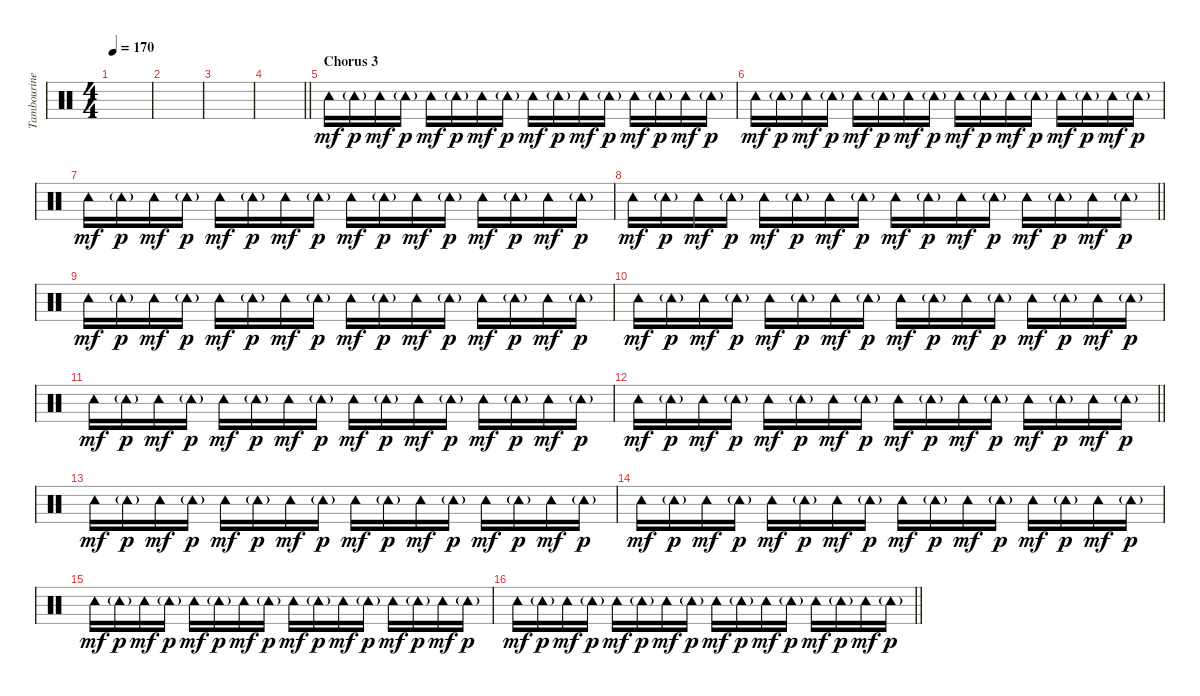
\track ("Tambourine" "Tambourine") {instrument percussion}
\staff {score}
\articulation defaults
\ts (4 4)
\tempo 170
\clef neutral
\ks c
|
|
|
\barLineRight lightlight
|
\section ("" "Chorus 3")
"Tambourine (hit)".16{dy mf} "Tambourine (hit)"{g}.16{dy p} "Tambourine (hit)".16{dy mf} "Tambourine (hit)"{g}.16{dy p} "Tambourine (hit)".16{dy mf} "Tambourine (hit)"{g}.16{dy p} "Tambourine (hit)".16{dy mf} "Tambourine (hit)"{g}.16{dy p} "Tambourine (hit)".16{dy mf} "Tambourine (hit)"{g}.16{dy p} "Tambourine (hit)".16{dy mf} "Tambourine (hit)"{g}.16{dy p} "Tambourine (hit)".16{dy mf} "Tambourine (hit)"{g}.16{dy p} "Tambourine (hit)".16{dy mf} "Tambourine (hit)"{g}.16{dy p} |
"Tambourine (hit)".16{dy mf} "Tambourine (hit)"{g}.16{dy p} "Tambourine (hit)".16{dy mf} "Tambourine (hit)"{g}.16{dy p} "Tambourine (hit)".16{dy mf} "Tambourine (hit)"{g}.16{dy p} "Tambourine (hit)".16{dy mf} "Tambourine (hit)"{g}.16{dy p} "Tambourine (hit)".16{dy mf} "Tambourine (hit)"{g}.16{dy p} "Tambourine (hit)".16{dy mf} "Tambourine (hit)"{g}.16{dy p} "Tambourine (hit)".16{dy mf} "Tambourine (hit)"{g}.16{dy p} "Tambourine (hit)".16{dy mf} "Tambourine (hit)"{g}.16{dy p} |
"Tambourine (hit)".16{dy mf} "Tambourine (hit)"{g}.16{dy p} "Tambourine (hit)".16{dy mf} "Tambourine (hit)"{g}.16{dy p} "Tambourine (hit)".16{dy mf} "Tambourine (hit)"{g}.16{dy p} "Tambourine (hit)".16{dy mf} "Tambourine (hit)"{g}.16{dy p} "Tambourine (hit)".16{dy mf} "Tambourine (hit)"{g}.16{dy p} "Tambourine (hit)".16{dy mf} "Tambourine (hit)"{g}.16{dy p} "Tambourine (hit)".16{dy mf} "Tambourine (hit)"{g}.16{dy p} "Tambourine (hit)".16{dy mf} "Tambourine (hit)"{g}.16{dy p} |
\barLineRight lightlight "Tambourine (hit)".16{dy mf} "Tambourine (hit)"{g}.16{dy p} "Tambourine (hit)".16{dy mf} "Tambourine (hit)"{g}.16{dy p} "Tambourine (hit)".16{dy mf} "Tambourine (hit)"{g}.16{dy p} "Tambourine (hit)".16{dy mf} "Tambourine (hit)"{g}.16{dy p} "Tambourine (hit)".16{dy mf} "Tambourine (hit)"{g}.16{dy p} "Tambourine (hit)".16{dy mf} "Tambourine (hit)"{g}.16{dy p} "Tambourine (hit)".16{dy mf} "Tambourine (hit)"{g}.16{dy p} "Tambourine (hit)".16{dy mf} "Tambourine (hit)"{g}.16{dy p}
|
"Tambourine (hit)".16{dy mf} "Tambourine (hit)"{g}.16{dy p} "Tambourine (hit)".16{dy mf} "Tambourine (hit)"{g}.16{dy p} "Tambourine (hit)".16{dy mf} "Tambourine (hit)"{g}.16{dy p} "Tambourine (hit)".16{dy mf} "Tambourine (hit)"{g}.16{dy p} "Tambourine (hit)".16{dy mf} "Tambourine (hit)"{g}.16{dy p} "Tambourine (hit)".16{dy mf} "Tambourine (hit)"{g}.16{dy p} "Tambourine (hit)".16{dy mf} "Tambourine (hit)"{g}.16{dy p} "Tambourine (hit)".16{dy mf} "Tambourine (hit)"{g}.16{dy p} |
"Tambourine (hit)".16{dy mf} "Tambourine (hit)"{g}.16{dy p} "Tambourine (hit)".16{dy mf} "Tambourine (hit)"{g}.16{dy p} "Tambourine (hit)".16{dy mf} "Tambourine (hit)"{g}.16{dy p} "Tambourine (hit)".16{dy mf} "Tambourine (hit)"{g}.16{dy p} "Tambourine (hit)".16{dy mf} "Tambourine (hit)"{g}.16{dy p} "Tambourine (hit)".16{dy mf} "Tambourine (hit)"{g}.16{dy p} "Tambourine (hit)".16{dy mf} "Tambourine (hit)"{g}.16{dy p} "Tambourine (hit)".16{dy mf} "Tambourine (hit)"{g}.16{dy p} |
"Tambourine (hit)".16{dy mf} "Tambourine (hit)"{g}.16{dy p} "Tambourine (hit)".16{dy mf} "Tambourine (hit)"{g}.16{dy p} "Tambourine (hit)".16{dy mf} "Tambourine (hit)"{g}.16{dy p} "Tambourine (hit)".16{dy mf} "Tambourine (hit)"{g}.16{dy p} "Tambourine (hit)".16{dy mf} "Tambourine (hit)"{g}.16{dy p} "Tambourine (hit)".16{dy mf} "Tambourine (hit)"{g}.16{dy p} "Tambourine (hit)".16{dy mf} "Tambourine (hit)"{g}.16{dy p} "Tambourine (hit)".16{dy mf} "Tambourine (hit)"{g}.16{dy p} |
\barLineRight lightlight "Tambourine (hit)".16{dy mf} "Tambourine (hit)"{g}.16{dy p} "Tambourine (hit)".16{dy mf} "Tambourine (hit)"{g}.16{dy p} "Tambourine (hit)".16{dy mf} "Tambourine (hit)"{g}.16{dy p} "Tambourine (hit)".16{dy mf} "Tambourine (hit)"{g}.16{dy p} "Tambourine (hit)".16{dy mf} "Tambourine (hit)"{g}.16{dy p} "Tambourine (hit)".16{dy mf} "Tambourine (hit)"{g}.16{dy p} "Tambourine (hit)".16{dy mf} "Tambourine (hit)"{g}.16{dy p} "Tambourine (hit)".16{dy mf} "Tambourine (hit)"{g}.16{dy p}
|
"Tambourine (hit)".16{dy mf} "Tambourine (hit)"{g}.16{dy p} "Tambourine (hit)".16{dy mf} "Tambourine (hit)"{g}.16{dy p} "Tambourine (hit)".16{dy mf} "Tambourine (hit)"{g}.16{dy p} "Tambourine (hit)".16{dy mf} "Tambourine (hit)"{g}.16{dy p} "Tambourine (hit)".16{dy mf} "Tambourine (hit)"{g}.16{dy p} "Tambourine (hit)".16{dy mf} "Tambourine (hit)"{g}.16{dy p} "Tambourine (hit)".16{dy mf} "Tambourine (hit)"{g}.16{dy p} "Tambourine (hit)".16{dy mf} "Tambourine (hit)"{g}.16{dy p} |
"Tambourine (hit)".16{dy mf} "Tambourine (hit)"{g}.16{dy p} "Tambourine (hit)".16{dy mf} "Tambourine (hit)"{g}.16{dy p} "Tambourine (hit)".16{dy mf} "Tambourine (hit)"{g}.16{dy p} "Tambourine (hit)".16{dy mf} "Tambourine (hit)"{g}.16{dy p} "Tambourine (hit)".16{dy mf} "Tambourine (hit)"{g}.16{dy p} "Tambourine (hit)".16{dy mf} "Tambourine (hit)"{g}.16{dy p} "Tambourine (hit)".16{dy mf} "Tambourine (hit)"{g}.16{dy p} "Tambourine (hit)".16{dy mf} "Tambourine (hit)"{g}.16{dy p} |
"Tambourine (hit)".16{dy mf} "Tambourine (hit)"{g}.16{dy p} "Tambourine (hit)".16{dy mf} "Tambourine (hit)"{g}.16{dy p} "Tambourine (hit)".16{dy mf} "Tambourine (hit)"{g}.16{dy p} "Tambourine (hit)".16{dy mf} "Tambourine (hit)"{g}.16{dy p} "Tambourine (hit)".16{dy mf} "Tambourine (hit)"{g}.16{dy p} "Tambourine (hit)".16{dy mf} "Tambourine (hit)"{g}.16{dy p} "Tambourine (hit)".16{dy mf} "Tambourine (hit)"{g}.16{dy p} "Tambourine (hit)".16{dy mf} "Tambourine (hit)"{g}.16{dy p} |
\barLineRight lightlight "Tambourine (hit)".16{dy mf} "Tambourine (hit)"{g}.16{dy p} "Tambourine (hit)".16{dy mf} "Tambourine (hit)"{g}.16{dy p} "Tambourine (hit)".16{dy mf} "Tambourine (hit)"{g}.16{dy p} "Tambourine (hit)".16{dy mf} "Tambourine (hit)"{g}.16{dy p} "Tambourine (hit)".16{dy mf} "Tambourine (hit)"{g}.16{dy p} "Tambourine (hit)".16{dy mf} "Tambourine (hit)"{g}.16{dy p} "Tambourine (hit)".16{dy mf} "Tambourine (hit)"{g}.16{dy p} "Tambourine (hit)".16{dy mf} "Tambourine (hit)"{g}.16{dy p}
